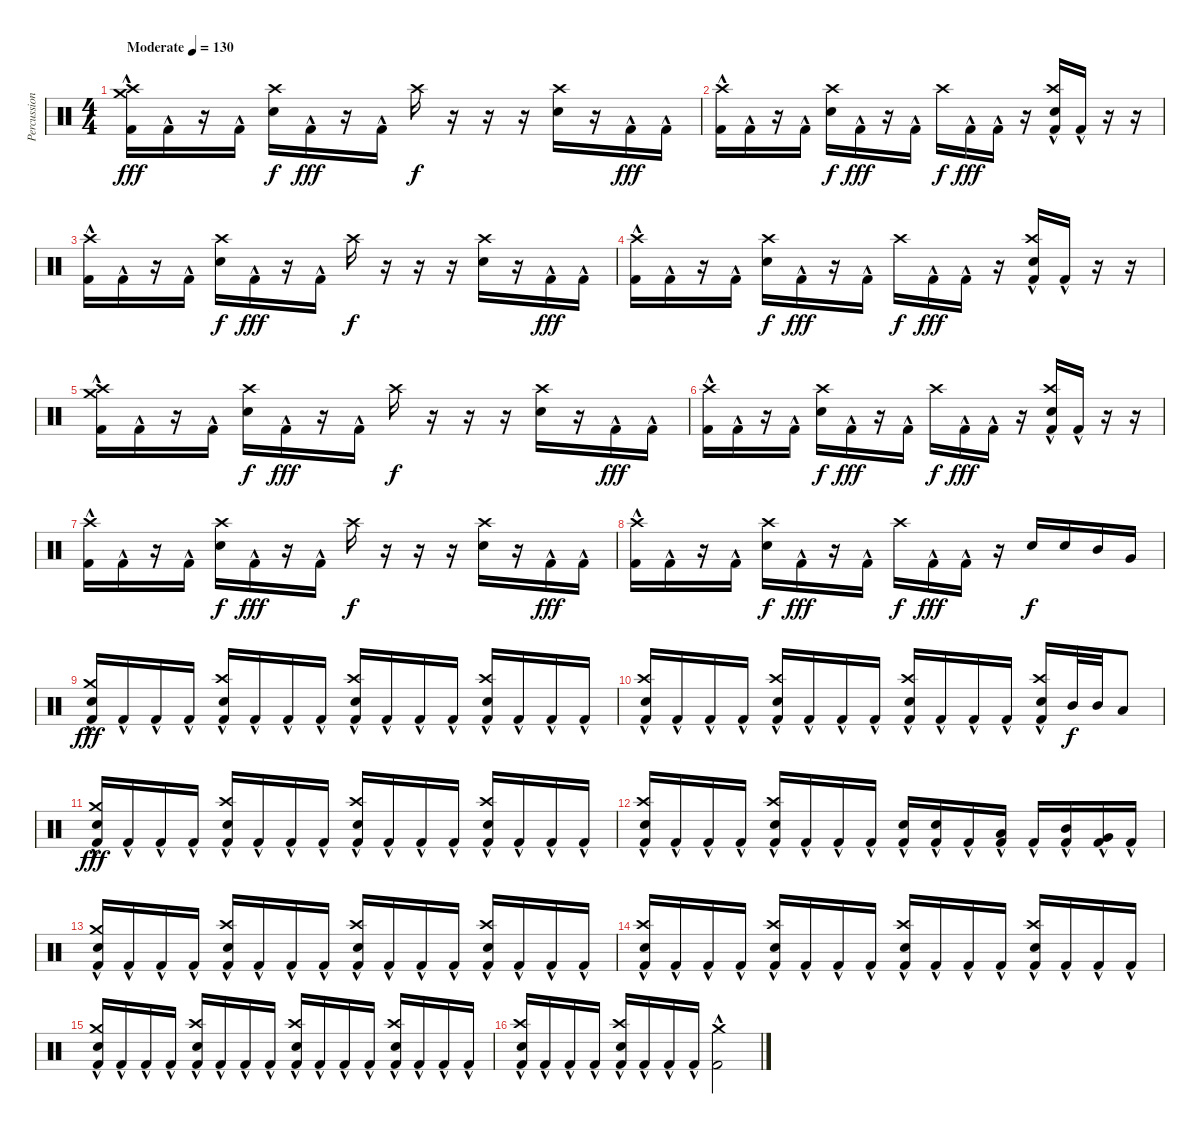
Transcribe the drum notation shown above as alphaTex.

\track ("Percussion" "Percussion") {instrument percussion}
\staff {score}
\articulation defaults
\ts (4 4)
\tempo (130 "Moderate")
\clef neutral
\ks c
("Kick (hit) 2"{hac} "Crash high (hit)" "Crash medium (hit)").16{dy fff} "Kick (hit) 2"{hac}.16 r.16 "Kick (hit) 2"{hac}.16 ("Electric Snare (hit)" "Crash high (hit)").16{dy f} "Kick (hit) 2"{hac}.16{dy fff} r.16 "Kick (hit) 2"{hac}.16 "Crash high (hit)".16{dy f} r.16 r.16 r.16 ("Electric Snare (hit)" "Crash high (hit)").16 r.16 "Kick (hit) 2"{hac}.16{dy fff} "Kick (hit) 2"{hac}.16 |
("Kick (hit) 2"{hac} "Crash high (hit)").16 "Kick (hit) 2"{hac}.16 r.16 "Kick (hit) 2"{hac}.16 ("Electric Snare (hit)" "Crash high (hit)").16{dy f} "Kick (hit) 2"{hac}.16{dy fff} r.16 "Kick (hit) 2"{hac}.16 "Crash high (hit)".16{dy f} "Kick (hit) 2"{hac}.16{dy fff} "Kick (hit) 2"{hac}.16 r.16 ("Kick (hit) 2"{hac} "Electric Snare (hit)" "Crash high (hit)").16 "Kick (hit) 2"{hac}.16 r.16 r.16 |
("Kick (hit) 2"{hac} "Crash high (hit)").16 "Kick (hit) 2"{hac}.16 r.16 "Kick (hit) 2"{hac}.16 ("Electric Snare (hit)" "Crash high (hit)").16{dy f} "Kick (hit) 2"{hac}.16{dy fff} r.16 "Kick (hit) 2"{hac}.16 "Crash high (hit)".16{dy f} r.16 r.16 r.16 ("Electric Snare (hit)" "Crash high (hit)").16 r.16 "Kick (hit) 2"{hac}.16{dy fff} "Kick (hit) 2"{hac}.16 |
("Kick (hit) 2"{hac} "Crash high (hit)").16 "Kick (hit) 2"{hac}.16 r.16 "Kick (hit) 2"{hac}.16 ("Electric Snare (hit)" "Crash high (hit)").16{dy f} "Kick (hit) 2"{hac}.16{dy fff} r.16 "Kick (hit) 2"{hac}.16 "Crash high (hit)".16{dy f} "Kick (hit) 2"{hac}.16{dy fff} "Kick (hit) 2"{hac}.16 r.16 ("Kick (hit) 2"{hac} "Electric Snare (hit)" "Crash high (hit)").16 "Kick (hit) 2"{hac}.16 r.16 r.16 |
("Kick (hit) 2"{hac} "Crash high (hit)" "Crash medium (hit)").16 "Kick (hit) 2"{hac}.16 r.16 "Kick (hit) 2"{hac}.16 ("Electric Snare (hit)" "Crash high (hit)").16{dy f} "Kick (hit) 2"{hac}.16{dy fff} r.16 "Kick (hit) 2"{hac}.16 "Crash high (hit)".16{dy f} r.16 r.16 r.16 ("Electric Snare (hit)" "Crash high (hit)").16 r.16 "Kick (hit) 2"{hac}.16{dy fff} "Kick (hit) 2"{hac}.16 |
("Kick (hit) 2"{hac} "Crash high (hit)").16 "Kick (hit) 2"{hac}.16 r.16 "Kick (hit) 2"{hac}.16 ("Electric Snare (hit)" "Crash high (hit)").16{dy f} "Kick (hit) 2"{hac}.16{dy fff} r.16 "Kick (hit) 2"{hac}.16 "Crash high (hit)".16{dy f} "Kick (hit) 2"{hac}.16{dy fff} "Kick (hit) 2"{hac}.16 r.16 ("Kick (hit) 2"{hac} "Electric Snare (hit)" "Crash high (hit)").16 "Kick (hit) 2"{hac}.16 r.16 r.16 |
("Kick (hit) 2"{hac} "Crash high (hit)").16 "Kick (hit) 2"{hac}.16 r.16 "Kick (hit) 2"{hac}.16 ("Electric Snare (hit)" "Crash high (hit)").16{dy f} "Kick (hit) 2"{hac}.16{dy fff} r.16 "Kick (hit) 2"{hac}.16 "Crash high (hit)".16{dy f} r.16 r.16 r.16 ("Electric Snare (hit)" "Crash high (hit)").16 r.16 "Kick (hit) 2"{hac}.16{dy fff} "Kick (hit) 2"{hac}.16 |
("Kick (hit) 2"{hac} "Crash high (hit)").16 "Kick (hit) 2"{hac}.16 r.16 "Kick (hit) 2"{hac}.16 ("Electric Snare (hit)" "Crash high (hit)").16{dy f} "Kick (hit) 2"{hac}.16{dy fff} r.16 "Kick (hit) 2"{hac}.16 "Crash high (hit)".16{dy f} "Kick (hit) 2"{hac}.16{dy fff} "Kick (hit) 2"{hac}.16 r.16 "Electric Snare (hit)".16{dy f} "Electric Snare (hit)".16 "Mid Tom (hit)".16 "Very Low Tom (hit)".16 |
("Kick (hit) 2"{hac} "Electric Snare (hit)" "Crash medium (hit)").16{dy fff} "Kick (hit) 2"{hac}.16 "Kick (hit) 2"{hac}.16 "Kick (hit) 2"{hac}.16 ("Kick (hit) 2"{hac} "Electric Snare (hit)" "Crash high (hit)").16 "Kick (hit) 2"{hac}.16 "Kick (hit) 2"{hac}.16 "Kick (hit) 2"{hac}.16 ("Kick (hit) 2"{hac} "Electric Snare (hit)" "Crash high (hit)").16 "Kick (hit) 2"{hac}.16 "Kick (hit) 2"{hac}.16 "Kick (hit) 2"{hac}.16 ("Kick (hit) 2"{hac} "Electric Snare (hit)" "Crash high (hit)").16 "Kick (hit) 2"{hac}.16 "Kick (hit) 2"{hac}.16 "Kick (hit) 2"{hac}.16 |
("Kick (hit) 2"{hac} "Electric Snare (hit)" "Crash high (hit)").16 "Kick (hit) 2"{hac}.16 "Kick (hit) 2"{hac}.16 "Kick (hit) 2"{hac}.16 ("Kick (hit) 2"{hac} "Electric Snare (hit)" "Crash high (hit)").16 "Kick (hit) 2"{hac}.16 "Kick (hit) 2"{hac}.16 "Kick (hit) 2"{hac}.16 ("Kick (hit) 2"{hac} "Electric Snare (hit)" "Crash high (hit)").16 "Kick (hit) 2"{hac}.16 "Kick (hit) 2"{hac}.16 "Kick (hit) 2"{hac}.16 ("Kick (hit) 2"{hac} "Electric Snare (hit)" "Crash high (hit)").16 "Mid Tom (hit)".32{dy f} "Mid Tom (hit)".32 "Low Tom (hit)".8 |
("Kick (hit) 2"{hac} "Electric Snare (hit)" "Crash medium (hit)").16{dy fff} "Kick (hit) 2"{hac}.16 "Kick (hit) 2"{hac}.16 "Kick (hit) 2"{hac}.16 ("Kick (hit) 2"{hac} "Electric Snare (hit)" "Crash high (hit)").16 "Kick (hit) 2"{hac}.16 "Kick (hit) 2"{hac}.16 "Kick (hit) 2"{hac}.16 ("Kick (hit) 2"{hac} "Electric Snare (hit)" "Crash high (hit)").16 "Kick (hit) 2"{hac}.16 "Kick (hit) 2"{hac}.16 "Kick (hit) 2"{hac}.16 ("Kick (hit) 2"{hac} "Electric Snare (hit)" "Crash high (hit)").16 "Kick (hit) 2"{hac}.16 "Kick (hit) 2"{hac}.16 "Kick (hit) 2"{hac}.16 |
("Kick (hit) 2"{hac} "Electric Snare (hit)" "Crash high (hit)").16 "Kick (hit) 2"{hac}.16 "Kick (hit) 2"{hac}.16 "Kick (hit) 2"{hac}.16 ("Kick (hit) 2"{hac} "Electric Snare (hit)" "Crash high (hit)").16 "Kick (hit) 2"{hac}.16 "Kick (hit) 2"{hac}.16 "Kick (hit) 2"{hac}.16 ("Kick (hit) 2"{hac} "Electric Snare (hit)").16 ("Kick (hit) 2"{hac} "Electric Snare (hit)").16 "Kick (hit) 2"{hac}.16 ("Kick (hit) 2"{hac} "Low Tom (hit)").16 "Kick (hit) 2"{hac}.16 ("Kick (hit) 2"{hac} "Mid Tom (hit)").16 ("Kick (hit) 2"{hac} "Very Low Tom (hit)").16 "Kick (hit) 2"{hac}.16 |
("Kick (hit) 2"{hac} "Electric Snare (hit)" "Crash medium (hit)").16 "Kick (hit) 2"{hac}.16 "Kick (hit) 2"{hac}.16 "Kick (hit) 2"{hac}.16 ("Kick (hit) 2"{hac} "Electric Snare (hit)" "Crash high (hit)").16 "Kick (hit) 2"{hac}.16 "Kick (hit) 2"{hac}.16 "Kick (hit) 2"{hac}.16 ("Kick (hit) 2"{hac} "Electric Snare (hit)" "Crash high (hit)").16 "Kick (hit) 2"{hac}.16 "Kick (hit) 2"{hac}.16 "Kick (hit) 2"{hac}.16 ("Kick (hit) 2"{hac} "Electric Snare (hit)" "Crash high (hit)").16 "Kick (hit) 2"{hac}.16 "Kick (hit) 2"{hac}.16 "Kick (hit) 2"{hac}.16 |
("Kick (hit) 2"{hac} "Electric Snare (hit)" "Crash high (hit)").16 "Kick (hit) 2"{hac}.16 "Kick (hit) 2"{hac}.16 "Kick (hit) 2"{hac}.16 ("Kick (hit) 2"{hac} "Electric Snare (hit)" "Crash high (hit)").16 "Kick (hit) 2"{hac}.16 "Kick (hit) 2"{hac}.16 "Kick (hit) 2"{hac}.16 ("Kick (hit) 2"{hac} "Electric Snare (hit)" "Crash high (hit)").16 "Kick (hit) 2"{hac}.16 "Kick (hit) 2"{hac}.16 "Kick (hit) 2"{hac}.16 ("Kick (hit) 2"{hac} "Electric Snare (hit)" "Crash high (hit)").16 "Kick (hit) 2"{hac}.16 "Kick (hit) 2"{hac}.16 "Kick (hit) 2"{hac}.16 |
("Kick (hit) 2"{hac} "Electric Snare (hit)" "Crash medium (hit)").16 "Kick (hit) 2"{hac}.16 "Kick (hit) 2"{hac}.16 "Kick (hit) 2"{hac}.16 ("Kick (hit) 2"{hac} "Electric Snare (hit)" "Crash high (hit)").16 "Kick (hit) 2"{hac}.16 "Kick (hit) 2"{hac}.16 "Kick (hit) 2"{hac}.16 ("Kick (hit) 2"{hac} "Electric Snare (hit)" "Crash high (hit)").16 "Kick (hit) 2"{hac}.16 "Kick (hit) 2"{hac}.16 "Kick (hit) 2"{hac}.16 ("Kick (hit) 2"{hac} "Electric Snare (hit)" "Crash high (hit)").16 "Kick (hit) 2"{hac}.16 "Kick (hit) 2"{hac}.16 "Kick (hit) 2"{hac}.16 |
("Kick (hit) 2"{hac} "Electric Snare (hit)" "Crash high (hit)").16 "Kick (hit) 2"{hac}.16 "Kick (hit) 2"{hac}.16 "Kick (hit) 2"{hac}.16 ("Kick (hit) 2"{hac} "Electric Snare (hit)" "Crash high (hit)").16 "Kick (hit) 2"{hac}.16 "Kick (hit) 2"{hac}.16 "Kick (hit) 2"{hac}.16 ("Kick (hit) 2"{hac} "Crash medium (hit)").2
